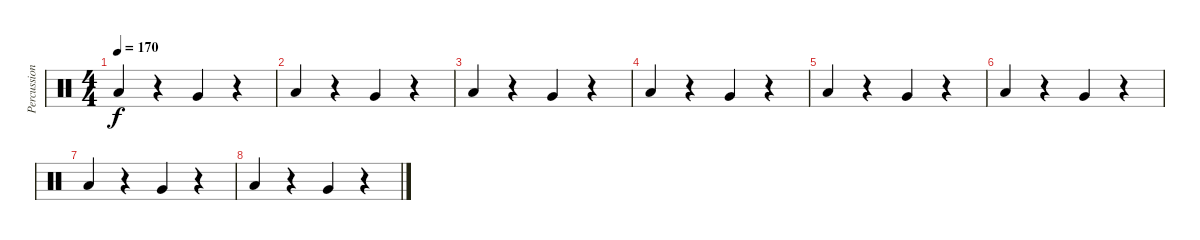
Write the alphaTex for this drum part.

\track ("Percussion" "Percussion") {instrument percussion}
\staff {score}
\articulation defaults
\ts (4 4)
\tempo 170
\clef neutral
\ks c "Low Tom (hit)".4{dy f}
r.4 "Very Low Tom (hit)".4 r.4 |
"Low Tom (hit)".4 r.4 "Very Low Tom (hit)".4 r.4 |
"Low Tom (hit)".4 r.4 "Very Low Tom (hit)".4 r.4 |
"Low Tom (hit)".4 r.4 "Very Low Tom (hit)".4 r.4 |
"Low Tom (hit)".4 r.4 "Very Low Tom (hit)".4 r.4 |
"Low Tom (hit)".4 r.4 "Very Low Tom (hit)".4 r.4 |
"Low Tom (hit)".4 r.4 "Very Low Tom (hit)".4 r.4 |
"Low Tom (hit)".4 r.4 "Very Low Tom (hit)".4 r.4
